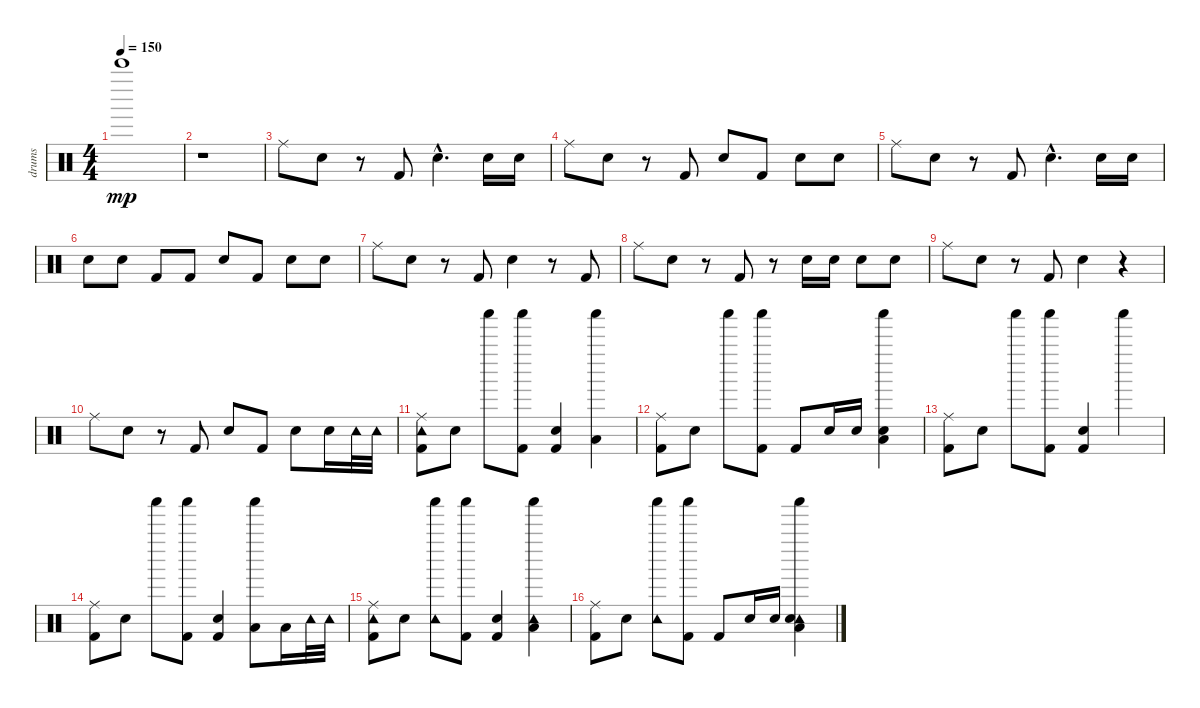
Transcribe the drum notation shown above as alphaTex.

\track ("drums" "drums") {instrument percussion}
\staff {score}
\articulation defaults
\ts (4 4)
\tempo 150
\clef neutral
\ks c "Bell Tree (hit)".1{dy mp}
|
r.1 |
"Ride (middle)".8 "Snare (hit) 2".8 r.8 "Kick (hit) 2".8 "Snare (hit) 2"{hac}.4{d} "Snare (hit) 2".16 "Snare (hit) 2".16 |
"Ride (middle)".8 "Snare (hit) 2".8 r.8 "Kick (hit) 2".8 "Snare (hit) 2".8 "Kick (hit) 2".8 "Snare (hit) 2".8 "Snare (hit) 2".8 |
"Ride (middle)".8 "Snare (hit) 2".8 r.8 "Kick (hit) 2".8 "Snare (hit) 2"{hac}.4{d} "Snare (hit) 2".16 "Snare (hit) 2".16 |
"Snare (hit) 2".8 "Snare (hit) 2".8 "Kick (hit) 2".8 "Kick (hit) 2".8 "Snare (hit) 2".8 "Kick (hit) 2".8 "Snare (hit) 2".8 "Snare (hit) 2".8 |
"Ride (middle)".8 "Snare (hit) 2".8 r.8 "Kick (hit) 2".8 "Snare (hit) 2".4 r.8 "Kick (hit) 2".8 |
"Ride (middle)".8 "Snare (hit) 2".8 r.8 "Kick (hit) 2".8 r.8 "Snare (hit) 2".16 "Snare (hit) 2".16 "Snare (hit) 2".8 "Snare (hit) 2".8 |
"Ride (middle)".8 "Snare (hit) 2".8 r.8 "Kick (hit) 2".8 "Snare (hit) 2".4 r.4 |
"Ride (middle)".8 "Snare (hit) 2".8 r.8 "Kick (hit) 2".8 "Snare (hit) 2".8 "Kick (hit) 2".8 "Snare (hit) 2".8 "Snare (hit) 2".16 "Tambourine (hit)".32 "Tambourine (hit)".32 |
("Tambourine (hit)" "Ride (middle)" "Kick (hit) 2").8 "Snare (hit) 2".8 "Shaker (hit)".8 ("Shaker (hit)" "Kick (hit) 2").8 ("Kick (hit) 2" "Snare (hit) 2").4 ("Shaker (hit)" "Low Tom (hit)").4 |
("Ride (middle)" "Kick (hit) 2").8 "Snare (hit) 2".8 "Shaker (hit)".8 ("Shaker (hit)" "Kick (hit) 2").8 "Kick (hit) 2".8 "Snare (hit) 2".16 "Snare (hit) 2".16 ("Low Tom (hit)" "Shaker (hit)" "Snare (hit) 2").4 |
("Ride (middle)" "Kick (hit) 2").8 "Snare (hit) 2".8 "Shaker (hit)".8 ("Shaker (hit)" "Kick (hit) 2").8 ("Kick (hit) 2" "Snare (hit) 2").4 "Shaker (hit)".4 |
("Ride (middle)" "Kick (hit) 2").8 "Snare (hit) 2".8 "Shaker (hit)".8 ("Shaker (hit)" "Kick (hit) 2").8 ("Kick (hit) 2" "Snare (hit) 2").4 ("Shaker (hit)" "Low Tom (hit)").8 "Low Tom (hit)".16 "Tambourine (hit)".32 "Tambourine (hit)".32 |
("Tambourine (hit)" "Ride (middle)" "Kick (hit) 2").8 "Snare (hit) 2".8 ("Shaker (hit)" "Tambourine (hit)").8 ("Shaker (hit)" "Kick (hit) 2").8 ("Kick (hit) 2" "Snare (hit) 2").4 ("Tambourine (hit)" "Shaker (hit)" "Low Tom (hit)").4 |
("Ride (middle)" "Kick (hit) 2").8 "Snare (hit) 2".8 ("Shaker (hit)" "Tambourine (hit)").8 ("Shaker (hit)" "Kick (hit) 2").8 "Kick (hit) 2".8 "Snare (hit) 2".16 "Snare (hit) 2".16 ("Low Tom (hit)" "Tambourine (hit)" "Shaker (hit)" "Snare (hit) 2").4
